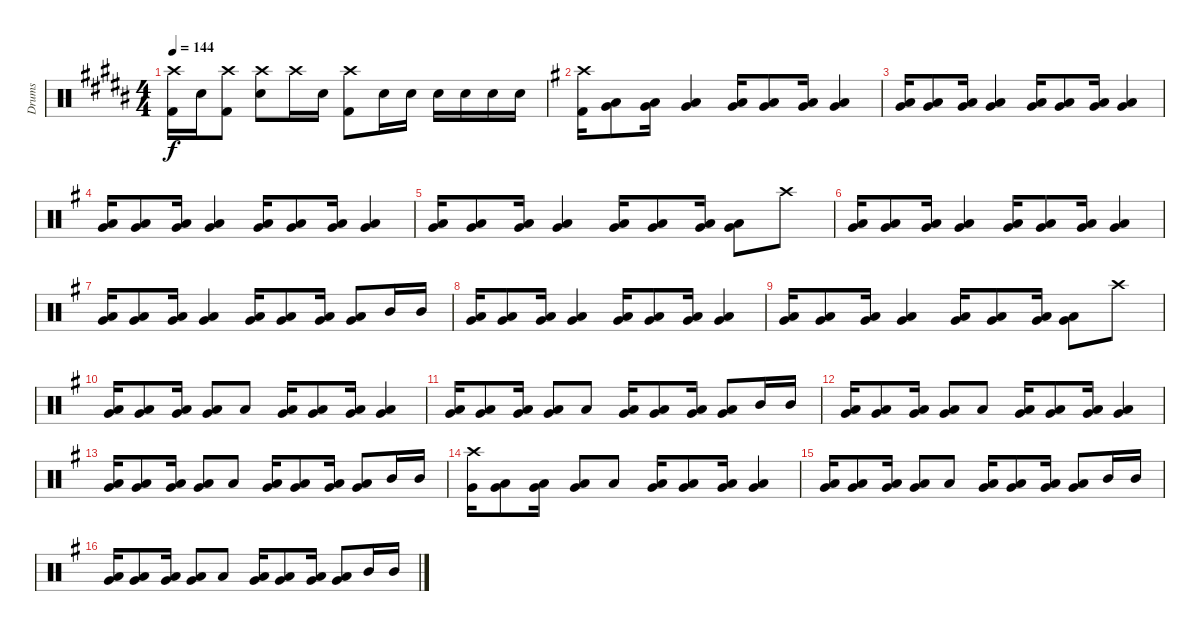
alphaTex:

\track ("Drums" "Drums") {instrument percussion}
\staff {score}
\articulation defaults
\ts (4 4)
\tempo 144
\clef neutral
\ks g#minor
("Crash high (hit)" "Kick (hit) 2").16{dy f} "Snare (hit) 2".16 ("Crash high (hit)" "Kick (hit) 2").8 ("Crash high (hit)" "Snare (hit) 2").8 "Crash high (hit)".16 "Snare (hit) 2".16 ("Crash high (hit)" "Kick (hit) 2").8 "Snare (hit) 2".16 "Snare (hit) 2".16 "Snare (hit) 2".16 "Snare (hit) 2".16 "Snare (hit) 2".16 "Snare (hit) 2".16 |
\ks eminor
("Crash high (hit)" "Kick (hit) 2").16 ("Low Tom (hit)" "Very Low Tom (hit)").8 ("Low Tom (hit)" "Very Low Tom (hit)").16 ("Low Tom (hit)" "Very Low Tom (hit)").4 ("Low Tom (hit)" "Very Low Tom (hit)").16 ("Low Tom (hit)" "Very Low Tom (hit)").8 ("Low Tom (hit)" "Very Low Tom (hit)").16 ("Low Tom (hit)" "Very Low Tom (hit)").4 |
("Low Tom (hit)" "Very Low Tom (hit)").16 ("Low Tom (hit)" "Very Low Tom (hit)").8 ("Low Tom (hit)" "Very Low Tom (hit)").16 ("Low Tom (hit)" "Very Low Tom (hit)").4 ("Low Tom (hit)" "Very Low Tom (hit)").16 ("Low Tom (hit)" "Very Low Tom (hit)").8 ("Low Tom (hit)" "Very Low Tom (hit)").16 ("Low Tom (hit)" "Very Low Tom (hit)").4 |
("Low Tom (hit)" "Very Low Tom (hit)").16 ("Low Tom (hit)" "Very Low Tom (hit)").8 ("Low Tom (hit)" "Very Low Tom (hit)").16 ("Low Tom (hit)" "Very Low Tom (hit)").4 ("Low Tom (hit)" "Very Low Tom (hit)").16 ("Low Tom (hit)" "Very Low Tom (hit)").8 ("Low Tom (hit)" "Very Low Tom (hit)").16 ("Low Tom (hit)" "Very Low Tom (hit)").4 |
("Low Tom (hit)" "Very Low Tom (hit)").16 ("Low Tom (hit)" "Very Low Tom (hit)").8 ("Low Tom (hit)" "Very Low Tom (hit)").16 ("Low Tom (hit)" "Very Low Tom (hit)").4 ("Low Tom (hit)" "Very Low Tom (hit)").16 ("Low Tom (hit)" "Very Low Tom (hit)").8 ("Low Tom (hit)" "Very Low Tom (hit)").16 ("Low Tom (hit)" "Very Low Tom (hit)").8 "Crash high (hit)".8 |
("Low Tom (hit)" "Very Low Tom (hit)").16 ("Low Tom (hit)" "Very Low Tom (hit)").8 ("Low Tom (hit)" "Very Low Tom (hit)").16 ("Low Tom (hit)" "Very Low Tom (hit)").4 ("Low Tom (hit)" "Very Low Tom (hit)").16 ("Low Tom (hit)" "Very Low Tom (hit)").8 ("Low Tom (hit)" "Very Low Tom (hit)").16 ("Low Tom (hit)" "Very Low Tom (hit)").4 |
("Low Tom (hit)" "Very Low Tom (hit)").16 ("Low Tom (hit)" "Very Low Tom (hit)").8 ("Low Tom (hit)" "Very Low Tom (hit)").16 ("Low Tom (hit)" "Very Low Tom (hit)").4 ("Low Tom (hit)" "Very Low Tom (hit)").16 ("Low Tom (hit)" "Very Low Tom (hit)").8 ("Low Tom (hit)" "Very Low Tom (hit)").16 ("Low Tom (hit)" "Very Low Tom (hit)").8 "Mid Tom (hit)".16 "Mid Tom (hit)".16 |
("Low Tom (hit)" "Very Low Tom (hit)").16 ("Low Tom (hit)" "Very Low Tom (hit)").8 ("Low Tom (hit)" "Very Low Tom (hit)").16 ("Low Tom (hit)" "Very Low Tom (hit)").4 ("Low Tom (hit)" "Very Low Tom (hit)").16 ("Low Tom (hit)" "Very Low Tom (hit)").8 ("Low Tom (hit)" "Very Low Tom (hit)").16 ("Low Tom (hit)" "Very Low Tom (hit)").4 |
("Low Tom (hit)" "Very Low Tom (hit)").16 ("Low Tom (hit)" "Very Low Tom (hit)").8 ("Low Tom (hit)" "Very Low Tom (hit)").16 ("Low Tom (hit)" "Very Low Tom (hit)").4 ("Low Tom (hit)" "Very Low Tom (hit)").16 ("Low Tom (hit)" "Very Low Tom (hit)").8 ("Low Tom (hit)" "Very Low Tom (hit)").16 ("Low Tom (hit)" "Very Low Tom (hit)").8 "Crash high (hit)".8 |
("Low Tom (hit)" "Very Low Tom (hit)").16 ("Low Tom (hit)" "Very Low Tom (hit)").8 ("Low Tom (hit)" "Very Low Tom (hit)").16 ("Low Tom (hit)" "Very Low Tom (hit)").8 "Low Tom (hit)".8 ("Low Tom (hit)" "Very Low Tom (hit)").16 ("Low Tom (hit)" "Very Low Tom (hit)").8 ("Low Tom (hit)" "Very Low Tom (hit)").16 ("Low Tom (hit)" "Very Low Tom (hit)").4 |
("Low Tom (hit)" "Very Low Tom (hit)").16 ("Low Tom (hit)" "Very Low Tom (hit)").8 ("Low Tom (hit)" "Very Low Tom (hit)").16 ("Low Tom (hit)" "Very Low Tom (hit)").8 "Low Tom (hit)".8 ("Low Tom (hit)" "Very Low Tom (hit)").16 ("Low Tom (hit)" "Very Low Tom (hit)").8 ("Low Tom (hit)" "Very Low Tom (hit)").16 ("Low Tom (hit)" "Very Low Tom (hit)").8 "Mid Tom (hit)".16 "Mid Tom (hit)".16 |
("Low Tom (hit)" "Very Low Tom (hit)").16 ("Low Tom (hit)" "Very Low Tom (hit)").8 ("Low Tom (hit)" "Very Low Tom (hit)").16 ("Low Tom (hit)" "Very Low Tom (hit)").8 "Low Tom (hit)".8 ("Low Tom (hit)" "Very Low Tom (hit)").16 ("Low Tom (hit)" "Very Low Tom (hit)").8 ("Low Tom (hit)" "Very Low Tom (hit)").16 ("Low Tom (hit)" "Very Low Tom (hit)").4 |
("Low Tom (hit)" "Very Low Tom (hit)").16 ("Low Tom (hit)" "Very Low Tom (hit)").8 ("Low Tom (hit)" "Very Low Tom (hit)").16 ("Low Tom (hit)" "Very Low Tom (hit)").8 "Low Tom (hit)".8 ("Low Tom (hit)" "Very Low Tom (hit)").16 ("Low Tom (hit)" "Very Low Tom (hit)").8 ("Low Tom (hit)" "Very Low Tom (hit)").16 ("Low Tom (hit)" "Very Low Tom (hit)").8 "Mid Tom (hit)".16 "Mid Tom (hit)".16 |
("Crash high (hit)" "Very Low Tom (hit)").16 ("Low Tom (hit)" "Very Low Tom (hit)").8 ("Low Tom (hit)" "Very Low Tom (hit)").16 ("Low Tom (hit)" "Very Low Tom (hit)").8 "Low Tom (hit)".8 ("Low Tom (hit)" "Very Low Tom (hit)").16 ("Low Tom (hit)" "Very Low Tom (hit)").8 ("Low Tom (hit)" "Very Low Tom (hit)").16 ("Low Tom (hit)" "Very Low Tom (hit)").4 |
("Low Tom (hit)" "Very Low Tom (hit)").16 ("Low Tom (hit)" "Very Low Tom (hit)").8 ("Low Tom (hit)" "Very Low Tom (hit)").16 ("Low Tom (hit)" "Very Low Tom (hit)").8 "Low Tom (hit)".8 ("Low Tom (hit)" "Very Low Tom (hit)").16 ("Low Tom (hit)" "Very Low Tom (hit)").8 ("Low Tom (hit)" "Very Low Tom (hit)").16 ("Low Tom (hit)" "Very Low Tom (hit)").8 "Mid Tom (hit)".16 "Mid Tom (hit)".16 |
("Low Tom (hit)" "Very Low Tom (hit)").16 ("Low Tom (hit)" "Very Low Tom (hit)").8 ("Low Tom (hit)" "Very Low Tom (hit)").16 ("Low Tom (hit)" "Very Low Tom (hit)").8 "Low Tom (hit)".8 ("Low Tom (hit)" "Very Low Tom (hit)").16 ("Low Tom (hit)" "Very Low Tom (hit)").8 ("Low Tom (hit)" "Very Low Tom (hit)").16 ("Low Tom (hit)" "Very Low Tom (hit)").8 "Mid Tom (hit)".16 "Mid Tom (hit)".16
